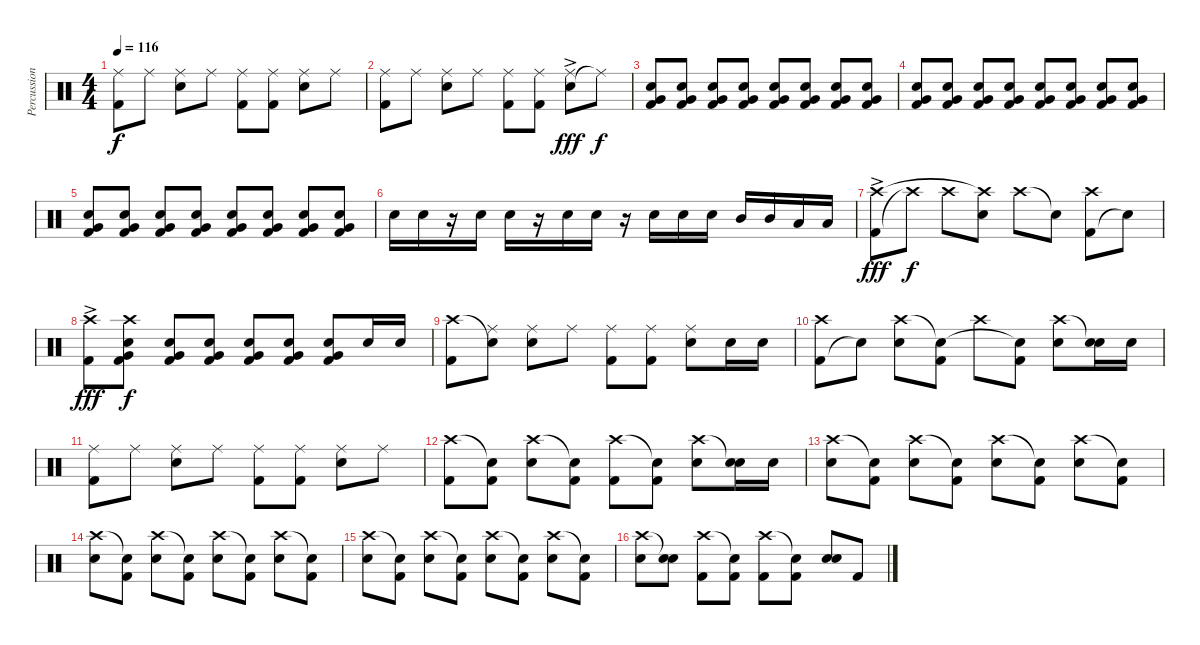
\track ("Percussion" "Percussion") {instrument percussion}
\staff {score}
\articulation defaults
\ts (4 4)
\tempo 116
\clef neutral
\ks c
("Kick (hit) 2" "Ride (middle)").8{dy f} "Ride (middle)".8 ("Electric Snare (hit)" "Ride (middle)").8 "Ride (middle)".8 ("Kick (hit) 2" "Ride (middle)").8 ("Kick (hit) 2" "Ride (middle)").8 ("Electric Snare (hit)" "Ride (middle)").8 "Ride (middle)".8 |
("Kick (hit) 2" "Ride (middle)").8 "Ride (middle)".8 ("Electric Snare (hit)" "Ride (middle)").8 "Ride (middle)".8 ("Kick (hit) 2" "Ride (middle)").8 ("Kick (hit) 2" "Ride (middle)").8 ("Electric Snare (hit)" "Ride (middle)"{ac}).8{dy fff} "Ride (middle)"{t}.8{dy f} |
("Kick (hit) 2" "Electric Snare (hit)" "Very Low Tom (hit)").8 ("Kick (hit) 2" "Electric Snare (hit)" "Very Low Tom (hit)").8 ("Kick (hit) 2" "Electric Snare (hit)" "Very Low Tom (hit)").8 ("Kick (hit) 2" "Electric Snare (hit)" "Very Low Tom (hit)").8 ("Kick (hit) 2" "Electric Snare (hit)" "Very Low Tom (hit)").8 ("Kick (hit) 2" "Electric Snare (hit)" "Very Low Tom (hit)").8 ("Kick (hit) 2" "Electric Snare (hit)" "Very Low Tom (hit)").8 ("Kick (hit) 2" "Electric Snare (hit)" "Very Low Tom (hit)").8 |
("Kick (hit) 2" "Electric Snare (hit)" "Very Low Tom (hit)").8 ("Kick (hit) 2" "Electric Snare (hit)" "Very Low Tom (hit)").8 ("Kick (hit) 2" "Electric Snare (hit)" "Very Low Tom (hit)").8 ("Kick (hit) 2" "Electric Snare (hit)" "Very Low Tom (hit)").8 ("Kick (hit) 2" "Electric Snare (hit)" "Very Low Tom (hit)").8 ("Kick (hit) 2" "Electric Snare (hit)" "Very Low Tom (hit)").8 ("Kick (hit) 2" "Electric Snare (hit)" "Very Low Tom (hit)").8 ("Kick (hit) 2" "Electric Snare (hit)" "Very Low Tom (hit)").8 |
("Kick (hit) 2" "Electric Snare (hit)" "Very Low Tom (hit)").8 ("Kick (hit) 2" "Electric Snare (hit)" "Very Low Tom (hit)").8 ("Kick (hit) 2" "Electric Snare (hit)" "Very Low Tom (hit)").8 ("Kick (hit) 2" "Electric Snare (hit)" "Very Low Tom (hit)").8 ("Kick (hit) 2" "Electric Snare (hit)" "Very Low Tom (hit)").8 ("Kick (hit) 2" "Electric Snare (hit)" "Very Low Tom (hit)").8 ("Kick (hit) 2" "Electric Snare (hit)" "Very Low Tom (hit)").8 ("Kick (hit) 2" "Electric Snare (hit)" "Very Low Tom (hit)").8 |
"Electric Snare (hit)".16 "Electric Snare (hit)".16 r.16 "Electric Snare (hit)".16 "Electric Snare (hit)".16 r.16 "Electric Snare (hit)".16 "Electric Snare (hit)".16 r.16 "Electric Snare (hit)".16 "Electric Snare (hit)".16 "Electric Snare (hit)".16 "Mid Tom (hit)".16 "Mid Tom (hit)".16 "Low Tom (hit)".16 "Low Tom (hit)".16 |
("Kick (hit) 2" "Crash high (hit)"{ac}).8{dy fff} "Crash high (hit)"{t}.8{dy f} "Crash high (hit)".8 ("Electric Snare (hit)" "Crash high (hit)"{t}).8 "Crash high (hit)".8 "Snare (hit)"{t}.8 ("Kick (hit) 2" "Crash high (hit)").8 "Snare (hit)"{t}.8 |
("Kick (hit) 2" "Crash high (hit)"{ac}).8{dy fff} ("Kick (hit) 2" "Electric Snare (hit)" "Very Low Tom (hit)" "Crash high (hit)").8{dy f} ("Kick (hit) 2" "Electric Snare (hit)" "Very Low Tom (hit)").8 ("Kick (hit) 2" "Electric Snare (hit)" "Very Low Tom (hit)").8 ("Kick (hit) 2" "Electric Snare (hit)" "Very Low Tom (hit)").8 ("Kick (hit) 2" "Electric Snare (hit)" "Very Low Tom (hit)").8 ("Kick (hit) 2" "Electric Snare (hit)" "Very Low Tom (hit)").8 "Electric Snare (hit)".16 "Electric Snare (hit)".16 |
("Kick (hit) 2" "Crash high (hit)").8 ("Ride (middle)" "Snare (hit)"{t}).8 ("Electric Snare (hit)" "Ride (middle)").8 "Ride (middle)".8 ("Kick (hit) 2" "Ride (middle)").8 ("Kick (hit) 2" "Ride (middle)").8 ("Electric Snare (hit)" "Ride (middle)").8 "Electric Snare (hit)".16 "Electric Snare (hit)".16 |
("Kick (hit) 2" "Crash high (hit)").8 "Snare (hit)"{t}.8 ("Electric Snare (hit)" "Crash high (hit)").8 ("Kick (hit) 2" "Snare (hit)"{t}).8 "Crash high (hit)".8 ("Kick (hit) 2" "Snare (hit)"{t}).8 ("Electric Snare (hit)" "Crash high (hit)").8 ("Electric Snare (hit)" "Snare (hit)"{t}).16 "Electric Snare (hit)".16 |
("Kick (hit) 2" "Ride (middle)").8 "Ride (middle)".8 ("Electric Snare (hit)" "Ride (middle)").8 "Ride (middle)".8 ("Kick (hit) 2" "Ride (middle)").8 ("Kick (hit) 2" "Ride (middle)").8 ("Electric Snare (hit)" "Ride (middle)").8 "Ride (middle)".8 |
("Kick (hit) 2" "Crash high (hit)").8 ("Kick (hit) 2" "Snare (hit)"{t}).8 ("Electric Snare (hit)" "Crash high (hit)").8 ("Kick (hit) 2" "Snare (hit)"{t}).8 ("Kick (hit) 2" "Crash high (hit)").8 ("Kick (hit) 2" "Snare (hit)"{t}).8 ("Electric Snare (hit)" "Crash high (hit)").8 ("Electric Snare (hit)" "Snare (hit)"{t}).16 "Electric Snare (hit)".16 |
("Electric Snare (hit)" "Crash high (hit)").8 ("Kick (hit) 2" "Snare (hit)"{t}).8 ("Electric Snare (hit)" "Crash high (hit)").8 ("Kick (hit) 2" "Snare (hit)"{t}).8 ("Electric Snare (hit)" "Crash high (hit)").8 ("Kick (hit) 2" "Snare (hit)"{t}).8 ("Electric Snare (hit)" "Crash high (hit)").8 ("Kick (hit) 2" "Snare (hit)"{t}).8 |
("Electric Snare (hit)" "Crash high (hit)").8 ("Kick (hit) 2" "Snare (hit)"{t}).8 ("Electric Snare (hit)" "Crash high (hit)").8 ("Kick (hit) 2" "Snare (hit)"{t}).8 ("Electric Snare (hit)" "Crash high (hit)").8 ("Kick (hit) 2" "Snare (hit)"{t}).8 ("Electric Snare (hit)" "Crash high (hit)").8 ("Kick (hit) 2" "Snare (hit)"{t}).8 |
("Electric Snare (hit)" "Crash high (hit)").8 ("Kick (hit) 2" "Snare (hit)"{t}).8 ("Electric Snare (hit)" "Crash high (hit)").8 ("Kick (hit) 2" "Snare (hit)"{t}).8 ("Electric Snare (hit)" "Crash high (hit)").8 ("Kick (hit) 2" "Snare (hit)"{t}).8 ("Electric Snare (hit)" "Crash high (hit)").8 ("Kick (hit) 2" "Snare (hit)"{t}).8 |
("Electric Snare (hit)" "Crash high (hit)").8 ("Electric Snare (hit)" "Snare (hit)"{t}).8 ("Kick (hit) 2" "Crash high (hit)").8 ("Kick (hit) 2" "Snare (hit)"{t}).8 ("Kick (hit) 2" "Crash high (hit)").8 ("Kick (hit) 2" "Snare (hit)"{t}).8 ("Electric Snare (hit)" "Electric Snare (hit)").8 "Kick (hit) 2".8
